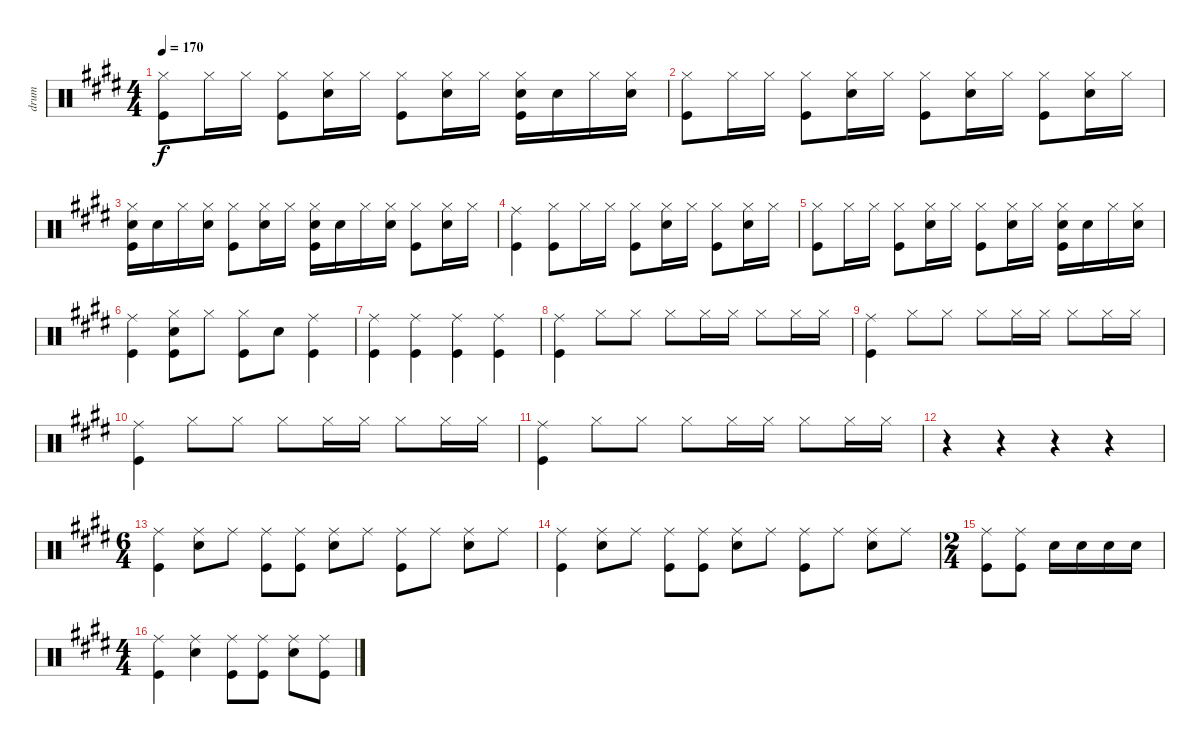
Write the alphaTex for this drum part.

\track ("drum" "drum") {instrument percussion}
\staff {score}
\articulation defaults
\ts (4 4)
\tempo 170
\clef neutral
\ks e
("Hi-Hat (closed)" "Kick (hit)").8{dy f} "Hi-Hat (closed)".16 "Hi-Hat (closed)".16 ("Hi-Hat (closed)" "Kick (hit)").8 ("Snare (hit) 2" "Hi-Hat (closed)").16 "Hi-Hat (closed)".16 ("Hi-Hat (closed)" "Kick (hit)").8 ("Snare (hit) 2" "Hi-Hat (closed)").16 "Hi-Hat (closed)".16 ("Hi-Hat (closed)" "Kick (hit)" "Snare (hit) 2").16 "Snare (hit) 2".16 "Hi-Hat (closed)".16 ("Hi-Hat (closed)" "Snare (hit) 2").16 |
("Hi-Hat (closed)" "Kick (hit)").8 "Hi-Hat (closed)".16 "Hi-Hat (closed)".16 ("Hi-Hat (closed)" "Kick (hit)").8 ("Snare (hit) 2" "Hi-Hat (closed)").16 "Hi-Hat (closed)".16 ("Hi-Hat (closed)" "Kick (hit)").8 ("Snare (hit) 2" "Hi-Hat (closed)").16 "Hi-Hat (closed)".16 ("Hi-Hat (closed)" "Kick (hit)").8 ("Snare (hit) 2" "Hi-Hat (closed)").16 "Hi-Hat (closed)".16 |
("Hi-Hat (closed)" "Kick (hit)" "Snare (hit) 2").16 "Snare (hit) 2".16 "Hi-Hat (closed)".16 ("Hi-Hat (closed)" "Snare (hit) 2").16 ("Hi-Hat (closed)" "Kick (hit)").8 ("Snare (hit) 2" "Hi-Hat (closed)").16 "Hi-Hat (closed)".16 ("Hi-Hat (closed)" "Kick (hit)" "Snare (hit) 2").16 "Snare (hit) 2".16 "Hi-Hat (closed)".16 ("Hi-Hat (closed)" "Snare (hit) 2").16 ("Hi-Hat (closed)" "Kick (hit)").8 ("Snare (hit) 2" "Hi-Hat (closed)").16 "Hi-Hat (closed)".16 |
("Kick (hit)" "Ride (middle)").4 ("Hi-Hat (closed)" "Kick (hit)").8 "Hi-Hat (closed)".16 "Hi-Hat (closed)".16 ("Hi-Hat (closed)" "Kick (hit)").8 ("Snare (hit) 2" "Hi-Hat (closed)").16 "Hi-Hat (closed)".16 ("Hi-Hat (closed)" "Kick (hit)").8 ("Snare (hit) 2" "Hi-Hat (closed)").16 "Hi-Hat (closed)".16 |
("Hi-Hat (closed)" "Kick (hit)").8 "Hi-Hat (closed)".16 "Hi-Hat (closed)".16 ("Hi-Hat (closed)" "Kick (hit)").8 ("Snare (hit) 2" "Hi-Hat (closed)").16 "Hi-Hat (closed)".16 ("Hi-Hat (closed)" "Kick (hit)").8 ("Snare (hit) 2" "Hi-Hat (closed)").16 "Hi-Hat (closed)".16 ("Hi-Hat (closed)" "Kick (hit)" "Snare (hit) 2").16 "Snare (hit) 2".16 "Hi-Hat (closed)".16 ("Hi-Hat (closed)" "Snare (hit) 2").16 |
("Ride (middle)" "Kick (hit)").4 ("Hi-Hat (closed)" "Snare (hit) 2" "Kick (hit)").8 "Hi-Hat (closed)".8 ("Kick (hit)" "Hi-Hat (closed)").8 "Snare (hit) 2".8 ("Ride (middle)" "Kick (hit)").4 |
("Kick (hit)" "Ride (middle)").4 ("Kick (hit)" "Ride (middle)").4 ("Kick (hit)" "Ride (middle)").4 ("Kick (hit)" "Ride (middle)").4 |
("Kick (hit)" "Ride (middle)").4 "Hi-Hat (closed)".8 "Hi-Hat (closed)".8 "Hi-Hat (closed)".8 "Hi-Hat (closed)".16 "Hi-Hat (closed)".16 "Hi-Hat (closed)".8 "Hi-Hat (closed)".16 "Hi-Hat (closed)".16 |
("Kick (hit)" "Ride (middle)").4 "Hi-Hat (closed)".8 "Hi-Hat (closed)".8 "Hi-Hat (closed)".8 "Hi-Hat (closed)".16 "Hi-Hat (closed)".16 "Hi-Hat (closed)".8 "Hi-Hat (closed)".16 "Hi-Hat (closed)".16 |
("Kick (hit)" "Ride (middle)").4 "Hi-Hat (closed)".8 "Hi-Hat (closed)".8 "Hi-Hat (closed)".8 "Hi-Hat (closed)".16 "Hi-Hat (closed)".16 "Hi-Hat (closed)".8 "Hi-Hat (closed)".16 "Hi-Hat (closed)".16 |
("Kick (hit)" "Ride (middle)").4 "Hi-Hat (closed)".8 "Hi-Hat (closed)".8 "Hi-Hat (closed)".8 "Hi-Hat (closed)".16 "Hi-Hat (closed)".16 "Hi-Hat (closed)".8 "Hi-Hat (closed)".16 "Hi-Hat (closed)".16 |
r.4 r.4 r.4 r.4 |
\ts (6 4)
("Kick (hit)" "Ride (middle)").4 ("Snare (hit) 2" "Ride (middle)").8 "Ride (middle)".8 ("Kick (hit)" "Ride (middle)").8 ("Kick (hit)" "Ride (middle)").8 ("Snare (hit) 2" "Ride (middle)").8 "Ride (middle)".8 ("Kick (hit)" "Ride (middle)").8 "Ride (middle)".8 ("Snare (hit) 2" "Ride (middle)").8 "Ride (middle)".8 |
("Kick (hit)" "Ride (middle)").4 ("Snare (hit) 2" "Ride (middle)").8 "Ride (middle)".8 ("Kick (hit)" "Ride (middle)").8 ("Kick (hit)" "Ride (middle)").8 ("Snare (hit) 2" "Ride (middle)").8 "Ride (middle)".8 ("Kick (hit)" "Ride (middle)").8 "Ride (middle)".8 ("Snare (hit) 2" "Ride (middle)").8 "Ride (middle)".8 |
\ts (2 4)
("Kick (hit)" "Ride (middle)").8 ("Kick (hit)" "Ride (middle)").8 "Snare (hit) 2".16 "Snare (hit) 2".16 "Snare (hit) 2".16 "Snare (hit) 2".16 |
\ts (4 4)
("Ride (middle)" "Kick (hit)").4 ("Ride (middle)" "Snare (hit) 2").4 ("Kick (hit)" "Ride (middle)").8 ("Kick (hit)" "Ride (middle)").8 ("Snare (hit) 2" "Ride (middle)").8 ("Kick (hit)" "Ride (middle)").8
